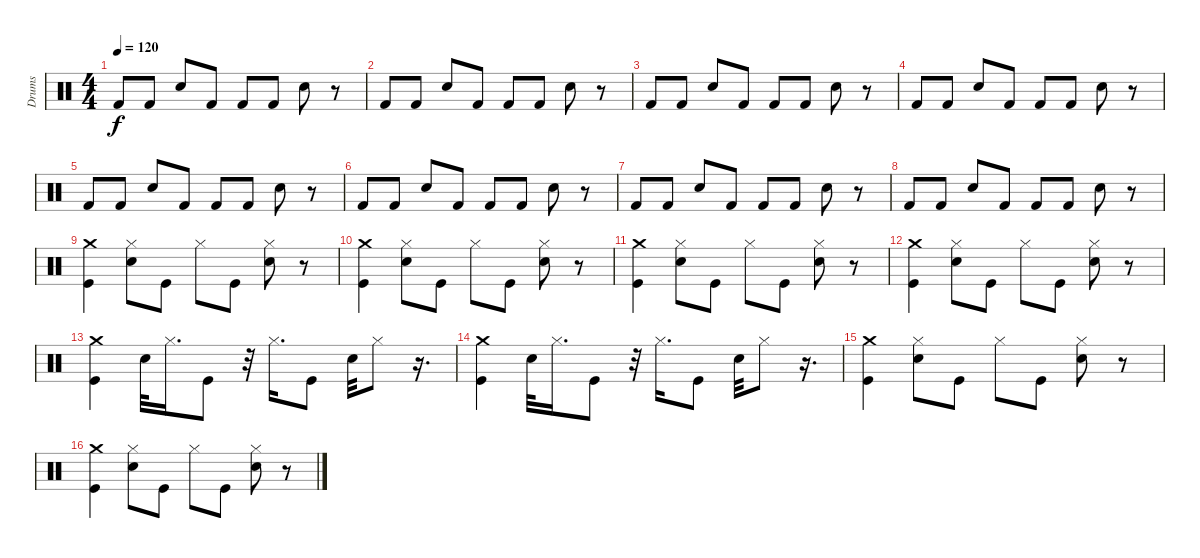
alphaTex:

\track ("Drums" "Drums") {instrument percussion}
\staff {score}
\articulation defaults
\ts (4 4)
\tempo 120
\clef neutral
\ks c "Kick (hit) 2".8{dy f} "Kick (hit) 2".8 "Electric Snare (hit)".8 "Kick (hit) 2".8 "Kick (hit) 2".8 "Kick (hit) 2".8 "Electric Snare (hit)".8
r.8 |
"Kick (hit) 2".8 "Kick (hit) 2".8 "Electric Snare (hit)".8 "Kick (hit) 2".8 "Kick (hit) 2".8 "Kick (hit) 2".8 "Electric Snare (hit)".8 r.8 |
"Kick (hit) 2".8 "Kick (hit) 2".8 "Electric Snare (hit)".8 "Kick (hit) 2".8 "Kick (hit) 2".8 "Kick (hit) 2".8 "Electric Snare (hit)".8 r.8 |
"Kick (hit) 2".8 "Kick (hit) 2".8 "Electric Snare (hit)".8 "Kick (hit) 2".8 "Kick (hit) 2".8 "Kick (hit) 2".8 "Electric Snare (hit)".8 r.8 |
"Kick (hit) 2".8 "Kick (hit) 2".8 "Electric Snare (hit)".8 "Kick (hit) 2".8 "Kick (hit) 2".8 "Kick (hit) 2".8 "Electric Snare (hit)".8 r.8 |
"Kick (hit) 2".8 "Kick (hit) 2".8 "Electric Snare (hit)".8 "Kick (hit) 2".8 "Kick (hit) 2".8 "Kick (hit) 2".8 "Electric Snare (hit)".8 r.8 |
"Kick (hit) 2".8 "Kick (hit) 2".8 "Electric Snare (hit)".8 "Kick (hit) 2".8 "Kick (hit) 2".8 "Kick (hit) 2".8 "Electric Snare (hit)".8 r.8 |
"Kick (hit) 2".8 "Kick (hit) 2".8 "Electric Snare (hit)".8 "Kick (hit) 2".8 "Kick (hit) 2".8 "Kick (hit) 2".8 "Electric Snare (hit)".8 r.8 |
("Crash medium (hit)" "Kick (hit)").4 ("Electric Snare (hit)" "Hi-Hat (closed)").8 "Kick (hit)".8 "Hi-Hat (closed)".8 "Kick (hit)".8 ("Electric Snare (hit)" "Hi-Hat (closed)").8 r.8 |
("Crash medium (hit)" "Kick (hit)").4 ("Electric Snare (hit)" "Hi-Hat (closed)").8 "Kick (hit)".8 "Hi-Hat (closed)".8 "Kick (hit)".8 ("Electric Snare (hit)" "Hi-Hat (closed)").8 r.8 |
("Crash medium (hit)" "Kick (hit)").4 ("Electric Snare (hit)" "Hi-Hat (closed)").8 "Kick (hit)".8 "Hi-Hat (closed)".8 "Kick (hit)".8 ("Electric Snare (hit)" "Hi-Hat (closed)").8 r.8 |
("Crash medium (hit)" "Kick (hit)").4 ("Electric Snare (hit)" "Hi-Hat (closed)").8 "Kick (hit)".8 "Hi-Hat (closed)".8 "Kick (hit)".8 ("Electric Snare (hit)" "Hi-Hat (closed)").8 r.8 |
("Crash medium (hit)" "Kick (hit)").4 "Electric Snare (hit)".32 "Hi-Hat (closed)".16{d} "Kick (hit)".8 r.32 "Hi-Hat (closed)".16{d} "Kick (hit)".8 "Electric Snare (hit)".32 "Hi-Hat (closed)".8 r.16{d} |
("Crash medium (hit)" "Kick (hit)").4 "Electric Snare (hit)".32 "Hi-Hat (closed)".16{d} "Kick (hit)".8 r.32 "Hi-Hat (closed)".16{d} "Kick (hit)".8 "Electric Snare (hit)".32 "Hi-Hat (closed)".8 r.16{d} |
("Crash medium (hit)" "Kick (hit)").4 ("Electric Snare (hit)" "Hi-Hat (closed)").8 "Kick (hit)".8 "Hi-Hat (closed)".8 "Kick (hit)".8 ("Electric Snare (hit)" "Hi-Hat (closed)").8 r.8 |
("Crash medium (hit)" "Kick (hit)").4 ("Electric Snare (hit)" "Hi-Hat (closed)").8 "Kick (hit)".8 "Hi-Hat (closed)".8 "Kick (hit)".8 ("Electric Snare (hit)" "Hi-Hat (closed)").8 r.8
